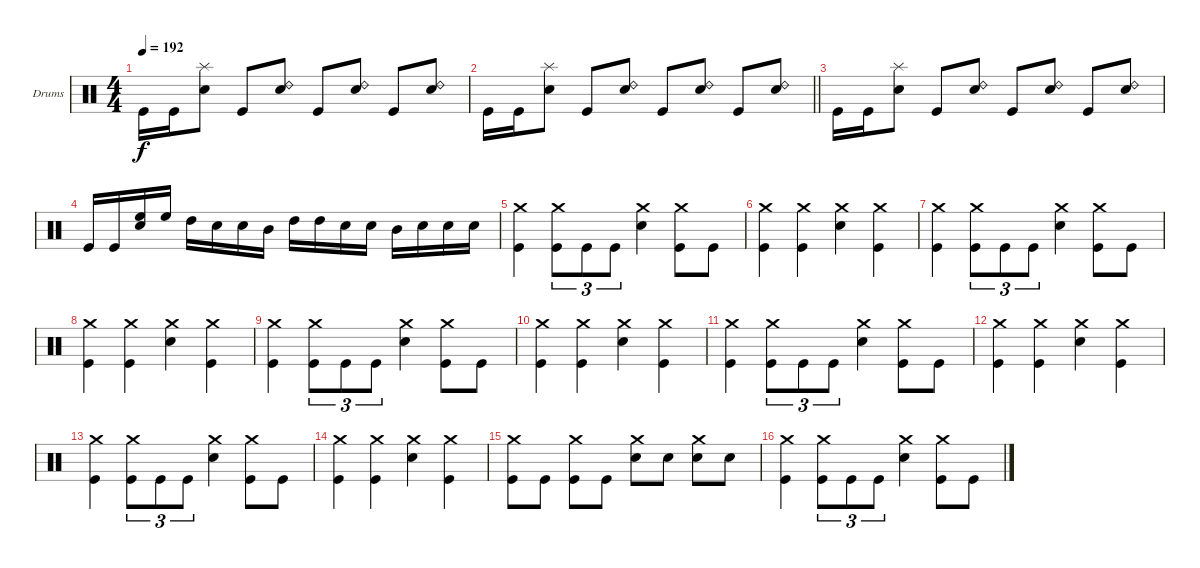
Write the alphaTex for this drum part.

\defaultSystemsLayout 4
\bracketExtendMode groupsimilarinstruments
\firstSystemTrackNameOrientation horizontal
\otherSystemsTrackNameOrientation horizontal
\track ("Drumkit" "Drums") {instrument percussion}
\staff {score}
\articulation defaults
\ts (4 4)
\tempo 192
\clef neutral
\ks c "Kick (hit)".16{dy f} "Kick (hit)".16
("Snare (hit) 2" "Splash (hit)").8 "Kick (hit)".8 ("Snare (hit) 2" "Ride (bell) 2").8 "Kick (hit)".8 ("Snare (hit) 2" "Ride (bell) 2").8 "Kick (hit)".8 ("Snare (hit) 2" "Ride (bell) 2").8 |
\barLineRight lightlight "Kick (hit)".16 "Kick (hit)".16
("Snare (hit) 2" "Splash (hit)").8 "Kick (hit)".8 ("Snare (hit) 2" "Ride (bell) 2").8 "Kick (hit)".8 ("Snare (hit) 2" "Ride (bell) 2").8 "Kick (hit)".8 ("Snare (hit) 2" "Ride (bell) 2").8 |
"Kick (hit)".16 "Kick (hit)".16 ("Snare (hit) 2" "Splash (hit)").8 "Kick (hit)".8 ("Snare (hit) 2" "Ride (bell) 2").8 "Kick (hit)".8 ("Snare (hit) 2" "Ride (bell) 2").8 "Kick (hit)".8 ("Snare (hit) 2" "Ride (bell) 2").8 |
"Kick (hit)".16 "Kick (hit)".16 ("Snare (hit) 2" "High Floor Tom (hit)").16 "High Floor Tom (hit)".16 "High Tom (hit)".16 "Snare (hit) 2".16 "Snare (hit) 2".16 "Mid Tom (hit)".16 "High Tom (hit)".16 "High Tom (hit)".16 "Snare (hit) 2".16 "Snare (hit) 2".16 "Mid Tom (hit)".16 "Snare (hit) 2".16 "Snare (hit) 2".16 "Snare (hit) 2".16 |
("Kick (hit)" "Crash medium (hit)").4 ("Crash medium (hit)" "Kick (hit)").8{tu (3 2)} "Kick (hit)".8{tu (3 2)} "Kick (hit)".8{tu (3 2)} ("Snare (hit) 2" "Crash medium (hit)").4 ("Crash medium (hit)" "Kick (hit)").8 "Kick (hit)".8 |
("Kick (hit)" "Crash medium (hit)").4 ("Kick (hit)" "Crash medium (hit)").4 ("Snare (hit) 2" "Crash medium (hit)").4 ("Kick (hit)" "Crash medium (hit)").4 |
("Kick (hit)" "Crash medium (hit)").4 ("Crash medium (hit)" "Kick (hit)").8{tu (3 2)} "Kick (hit)".8{tu (3 2)} "Kick (hit)".8{tu (3 2)} ("Snare (hit) 2" "Crash medium (hit)").4 ("Crash medium (hit)" "Kick (hit)").8 "Kick (hit)".8 |
("Kick (hit)" "Crash medium (hit)").4 ("Kick (hit)" "Crash medium (hit)").4 ("Snare (hit) 2" "Crash medium (hit)").4 ("Kick (hit)" "Crash medium (hit)").4 |
("Kick (hit)" "Crash medium (hit)").4 ("Crash medium (hit)" "Kick (hit)").8{tu (3 2)} "Kick (hit)".8{tu (3 2)} "Kick (hit)".8{tu (3 2)} ("Snare (hit) 2" "Crash medium (hit)").4 ("Crash medium (hit)" "Kick (hit)").8 "Kick (hit)".8 |
("Kick (hit)" "Crash medium (hit)").4 ("Kick (hit)" "Crash medium (hit)").4 ("Snare (hit) 2" "Crash medium (hit)").4 ("Kick (hit)" "Crash medium (hit)").4 |
("Kick (hit)" "Crash medium (hit)").4 ("Crash medium (hit)" "Kick (hit)").8{tu (3 2)} "Kick (hit)".8{tu (3 2)} "Kick (hit)".8{tu (3 2)} ("Snare (hit) 2" "Crash medium (hit)").4 ("Crash medium (hit)" "Kick (hit)").8 "Kick (hit)".8 |
("Kick (hit)" "Crash medium (hit)").4 ("Kick (hit)" "Crash medium (hit)").4 ("Snare (hit) 2" "Crash medium (hit)").4 ("Kick (hit)" "Crash medium (hit)").4 |
("Kick (hit)" "Crash medium (hit)").4 ("Crash medium (hit)" "Kick (hit)").8{tu (3 2)} "Kick (hit)".8{tu (3 2)} "Kick (hit)".8{tu (3 2)} ("Snare (hit) 2" "Crash medium (hit)").4 ("Crash medium (hit)" "Kick (hit)").8 "Kick (hit)".8 |
("Kick (hit)" "Crash medium (hit)").4 ("Kick (hit)" "Crash medium (hit)").4 ("Snare (hit) 2" "Crash medium (hit)").4 ("Kick (hit)" "Crash medium (hit)").4 |
("Crash medium (hit)" "Kick (hit)").8 "Kick (hit)".8 ("Kick (hit)" "Crash medium (hit)").8 "Kick (hit)".8 ("Crash medium (hit)" "Snare (hit) 2").8 "Snare (hit) 2".8 ("Snare (hit) 2" "Crash medium (hit)").8 "Snare (hit) 2".8 |
("Kick (hit)" "Crash medium (hit)").4 ("Crash medium (hit)" "Kick (hit)").8{tu (3 2)} "Kick (hit)".8{tu (3 2)} "Kick (hit)".8{tu (3 2)} ("Snare (hit) 2" "Crash medium (hit)").4 ("Crash medium (hit)" "Kick (hit)").8 "Kick (hit)".8
